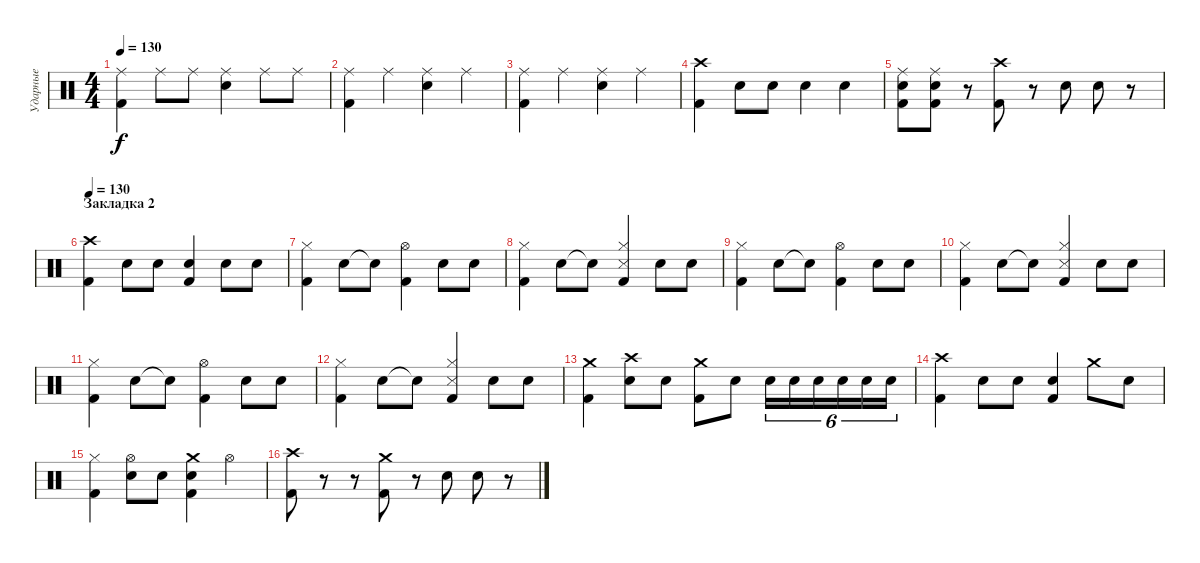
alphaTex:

\track ("Ударные" "Ударные") {instrument percussion}
\staff {score}
\articulation defaults
\ts (4 4)
\tempo 130
\clef neutral
\ks c
("Ride (middle)" "Kick (hit) 2").4{dy f} "Ride (middle)".8 "Ride (middle)".8 ("Ride (middle)" "Snare (hit) 2").4 "Ride (middle)".8 "Ride (middle)".8 |
("Ride (middle)" "Kick (hit) 2").4 "Ride (middle)".4 ("Ride (middle)" "Snare (hit) 2").4 "Ride (middle)".4 |
("Ride (middle)" "Kick (hit) 2").4 "Ride (middle)".4 ("Ride (middle)" "Snare (hit) 2").4 "Ride (middle)".4 |
("Crash high (hit)" "Kick (hit) 2").4 "Snare (hit) 2".8 "Snare (hit) 2".8 "Snare (hit) 2".4 "Snare (hit) 2".4 |
("Ride (middle)" "Snare (hit) 2" "Kick (hit) 2").8 ("Ride (middle)" "Snare (hit) 2" "Kick (hit) 2").8 r.8 ("Crash high (hit)" "Kick (hit) 2").8 r.8 "Snare (hit) 2".8 "Snare (hit) 2".8 r.8 |
\section ("" "Закладка 2")
\tempo 130
("Crash high (hit)" "Kick (hit) 2").4 "Snare (hit) 2".8 "Snare (hit) 2".8 ("Snare (hit) 2" "Kick (hit) 2").4 "Snare (hit) 2".8 "Snare (hit) 2".8 |
("Hi-Hat (closed)" "Kick (hit) 2").4 "Snare (hit) 2".8 "Snare (hit) 2"{t}.8 ("Hi-Hat (open)" "Kick (hit) 2").4 "Snare (hit) 2".8 "Snare (hit) 2".8 |
("Hi-Hat (closed)" "Kick (hit) 2").4 "Snare (hit) 2".8 "Snare (hit) 2"{t}.8 ("Hi-Hat (closed)" "Snare (side stick) 3" "Kick (hit) 2").4 "Snare (hit) 2".8 "Snare (hit) 2".8 |
("Hi-Hat (closed)" "Kick (hit) 2").4 "Snare (hit) 2".8 "Snare (hit) 2"{t}.8 ("Hi-Hat (open)" "Kick (hit) 2").4 "Snare (hit) 2".8 "Snare (hit) 2".8 |
("Hi-Hat (closed)" "Kick (hit) 2").4 "Snare (hit) 2".8 "Snare (hit) 2"{t}.8 ("Hi-Hat (closed)" "Snare (side stick) 3" "Kick (hit) 2").4 "Snare (hit) 2".8 "Snare (hit) 2".8 |
("Hi-Hat (closed)" "Kick (hit) 2").4 "Snare (hit) 2".8 "Snare (hit) 2"{t}.8 ("Hi-Hat (open)" "Kick (hit) 2").4 "Snare (hit) 2".8 "Snare (hit) 2".8 |
("Hi-Hat (closed)" "Kick (hit) 2").4 "Snare (hit) 2".8 "Snare (hit) 2"{t}.8 ("Hi-Hat (closed)" "Snare (side stick) 3" "Kick (hit) 2").4 "Snare (hit) 2".8 "Snare (hit) 2".8 |
("Crash medium (hit)" "Kick (hit) 2").4 ("Crash high (hit)" "Snare (hit) 2").8 "Snare (hit) 2".8 ("Crash medium (hit)" "Kick (hit) 2").8 "Snare (hit) 2".8 "Snare (hit) 2".16{tu (6 4)} "Snare (hit) 2".16{tu (6 4)} "Snare (hit) 2".16{tu (6 4)} "Snare (hit) 2".16{tu (6 4)} "Snare (hit) 2".16{tu (6 4)} "Snare (hit) 2".16{tu (6 4)} |
("Crash high (hit)" "Kick (hit) 2").4 "Snare (hit) 2".8 "Snare (hit) 2".8 ("Snare (hit) 2" "Kick (hit) 2").4 "Crash medium (hit)".8 "Snare (hit) 2".8 |
("Hi-Hat (closed)" "Kick (hit) 2").4 ("Hi-Hat (open)" "Snare (hit) 2").8 "Snare (hit) 2".8 ("Crash medium (hit)" "Snare (hit) 2" "Kick (hit) 2").4 "Hi-Hat (open)".4 |
("Crash high (hit)" "Kick (hit) 2").8 r.8 r.8 ("Crash medium (hit)" "Kick (hit) 2").8 r.8 "Snare (hit) 2".8 "Snare (hit) 2".8 r.8
